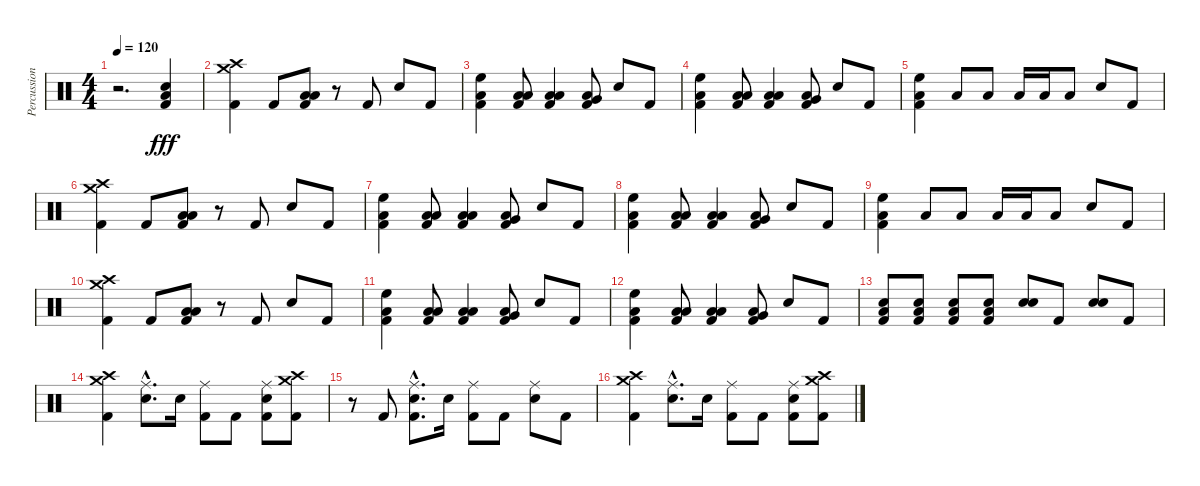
\track ("Percussion" "Percussion") {instrument percussion}
\staff {score}
\articulation defaults
\ts (4 4)
\tempo 120
\clef neutral
\ks c
r.2{d dy fff} ("Low Floor Tom (hit)" "Snare (hit) 2" "Kick (hit) 2").4 |
("Crash medium (hit)" "Crash high (hit)" "Kick (hit) 2").4 "Kick (hit) 2".8 ("Low Tom (hit)" "Low Floor Tom (hit)" "Kick (hit) 2").8 r.8 "Kick (hit) 2".8 "Snare (hit) 2".8 "Kick (hit) 2".8 |
("High Floor Tom (hit)" "Low Tom (hit)" "Kick (hit) 2").4 ("Low Floor Tom (hit)" "Low Tom (hit)" "Kick (hit) 2").8 ("Low Floor Tom (hit)" "Low Tom (hit)" "Kick (hit) 2").4 ("Low Floor Tom (hit)" "Very Low Tom (hit)" "Kick (hit) 2").8 "Snare (hit) 2".8 "Kick (hit) 2".8 |
("High Floor Tom (hit)" "Low Tom (hit)" "Kick (hit) 2").4 ("Low Floor Tom (hit)" "Low Tom (hit)" "Kick (hit) 2").8 ("Low Floor Tom (hit)" "Low Tom (hit)" "Kick (hit) 2").4 ("Low Floor Tom (hit)" "Very Low Tom (hit)" "Kick (hit) 2").8 "Snare (hit) 2".8 "Kick (hit) 2".8 |
("High Floor Tom (hit)" "Low Tom (hit)" "Kick (hit) 2").4 "Low Tom (hit)".8 "Low Tom (hit)".8 "Low Floor Tom (hit)".16 "Low Floor Tom (hit)".16 "Low Floor Tom (hit)".8 "Snare (hit) 2".8 "Kick (hit) 2".8 |
("Crash medium (hit)" "Crash high (hit)" "Kick (hit) 2").4 "Kick (hit) 2".8 ("Low Tom (hit)" "Low Floor Tom (hit)" "Kick (hit) 2").8 r.8 "Kick (hit) 2".8 "Snare (hit) 2".8 "Kick (hit) 2".8 |
("High Floor Tom (hit)" "Low Tom (hit)" "Kick (hit) 2").4 ("Low Floor Tom (hit)" "Low Tom (hit)" "Kick (hit) 2").8 ("Low Floor Tom (hit)" "Low Tom (hit)" "Kick (hit) 2").4 ("Low Floor Tom (hit)" "Very Low Tom (hit)" "Kick (hit) 2").8 "Snare (hit) 2".8 "Kick (hit) 2".8 |
("High Floor Tom (hit)" "Low Tom (hit)" "Kick (hit) 2").4 ("Low Floor Tom (hit)" "Low Tom (hit)" "Kick (hit) 2").8 ("Low Floor Tom (hit)" "Low Tom (hit)" "Kick (hit) 2").4 ("Low Floor Tom (hit)" "Very Low Tom (hit)" "Kick (hit) 2").8 "Snare (hit) 2".8 "Kick (hit) 2".8 |
("High Floor Tom (hit)" "Low Tom (hit)" "Kick (hit) 2").4 "Low Tom (hit)".8 "Low Tom (hit)".8 "Low Floor Tom (hit)".16 "Low Floor Tom (hit)".16 "Low Floor Tom (hit)".8 "Snare (hit) 2".8 "Kick (hit) 2".8 |
("Crash medium (hit)" "Crash high (hit)" "Kick (hit) 2").4 "Kick (hit) 2".8 ("Low Tom (hit)" "Low Floor Tom (hit)" "Kick (hit) 2").8 r.8 "Kick (hit) 2".8 "Snare (hit) 2".8 "Kick (hit) 2".8 |
("High Floor Tom (hit)" "Low Tom (hit)" "Kick (hit) 2").4 ("Low Floor Tom (hit)" "Low Tom (hit)" "Kick (hit) 2").8 ("Low Floor Tom (hit)" "Low Tom (hit)" "Kick (hit) 2").4 ("Low Floor Tom (hit)" "Very Low Tom (hit)" "Kick (hit) 2").8 "Snare (hit) 2".8 "Kick (hit) 2".8 |
("High Floor Tom (hit)" "Low Tom (hit)" "Kick (hit) 2").4 ("Low Floor Tom (hit)" "Low Tom (hit)" "Kick (hit) 2").8 ("Low Floor Tom (hit)" "Low Tom (hit)" "Kick (hit) 2").4 ("Low Floor Tom (hit)" "Very Low Tom (hit)" "Kick (hit) 2").8 "Snare (hit) 2".8 "Kick (hit) 2".8 |
("Low Floor Tom (hit)" "Snare (hit) 2" "Kick (hit) 2").8 ("Low Floor Tom (hit)" "Snare (hit) 2" "Kick (hit) 2").8 ("Low Floor Tom (hit)" "Snare (hit) 2" "Kick (hit) 2").8 ("Low Floor Tom (hit)" "Snare (hit) 2" "Kick (hit) 2").8 ("Snare (hit) 2" "Snare (hit) 2").8 "Kick (hit) 2".8 ("Snare (hit) 2" "Snare (hit) 2").8 "Kick (hit) 2".8 |
("Crash high (hit)" "Crash medium (hit)" "Kick (hit) 2").4 ("Ride (middle)"{hac} "Snare (hit) 2"{hac}).8{d} "Snare (hit) 2".16 ("Ride (middle)" "Kick (hit) 2").8 "Kick (hit) 2".8 ("Ride (middle)" "Snare (hit) 2" "Kick (hit) 2").8 ("Crash medium (hit)" "Crash high (hit)" "Kick (hit) 2").8 |
r.8 "Kick (hit) 2".8 ("Ride (middle)"{hac} "Snare (hit) 2"{hac} "Kick (hit) 2"{hac}).8{d} "Snare (hit) 2".16 ("Ride (middle)" "Kick (hit) 2").8 "Kick (hit) 2".8 ("Ride (middle)" "Snare (hit) 2").8 "Kick (hit) 2".8 |
("Crash high (hit)" "Crash medium (hit)" "Kick (hit) 2").4 ("Ride (middle)"{hac} "Snare (hit) 2"{hac}).8{d} "Snare (hit) 2".16 ("Ride (middle)" "Kick (hit) 2").8 "Kick (hit) 2".8 ("Ride (middle)" "Snare (hit) 2" "Kick (hit) 2").8 ("Crash medium (hit)" "Crash high (hit)" "Kick (hit) 2").8
